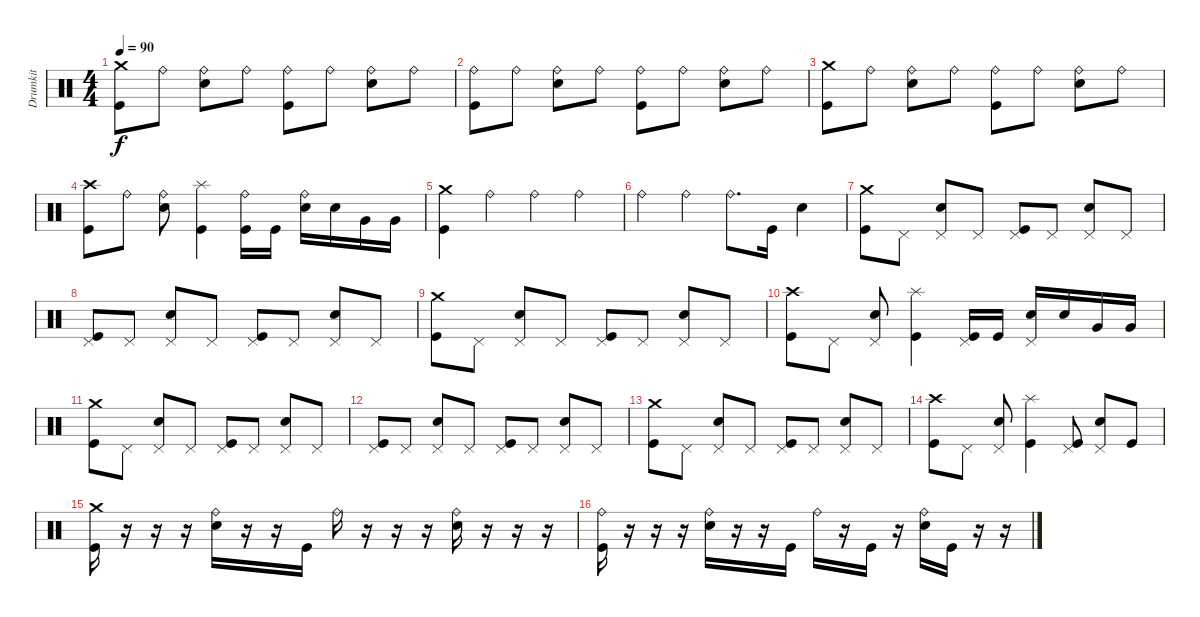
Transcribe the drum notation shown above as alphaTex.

\track ("Drumkit" "Drumkit") {instrument percussion}
\staff {score}
\articulation defaults
\ts (4 4)
\tempo 90
\clef neutral
\ks c
("Crash medium (hit)" "Kick (hit)").8{dy f} "Ride (bell)".8 ("Ride (bell)" "Snare (hit) 2").8 "Ride (bell)".8 ("Ride (bell)" "Kick (hit)").8 "Ride (bell)".8 ("Ride (bell)" "Snare (hit) 2").8 "Ride (bell)".8 |
("Ride (bell)" "Kick (hit)").8 "Ride (bell)".8 ("Ride (bell)" "Snare (hit) 2").8 "Ride (bell)".8 ("Ride (bell)" "Kick (hit)").8 "Ride (bell)".8 ("Ride (bell)" "Snare (hit) 2").8 "Ride (bell)".8 |
("Crash medium (hit)" "Kick (hit)").8 "Ride (bell)".8 ("Ride (bell)" "Snare (hit) 2").8 "Ride (bell)".8 ("Ride (bell)" "Kick (hit)").8 "Ride (bell)".8 ("Ride (bell)" "Snare (hit) 2").8 "Ride (bell)".8 |
("Crash high (hit)" "Kick (hit)").8 "Ride (bell)".8 ("Ride (bell)" "Snare (hit) 2").8 ("Splash (hit)" "Kick (hit)").4 ("Ride (bell)" "Kick (hit)").16 "Kick (hit)".16 ("Ride (bell)" "Snare (hit) 2").16 "Snare (hit) 2".16 "Very Low Tom (hit)".16 "Very Low Tom (hit)".16 |
("Crash medium (hit)" "Kick (hit)").4 "Ride (bell)".4 "Ride (bell)".4 "Ride (bell)".4 |
"Ride (bell)".4 "Ride (bell)".4 "Ride (bell)".8{d} "Kick (hit)".16 "Snare (hit) 2".4 |
("Crash medium (hit)" "Kick (hit)").8 "Pedal Hi-Hat (hit)".8 ("Pedal Hi-Hat (hit)" "Snare (hit) 2").8 "Pedal Hi-Hat (hit)".8 ("Pedal Hi-Hat (hit)" "Kick (hit)").8 "Pedal Hi-Hat (hit)".8 ("Pedal Hi-Hat (hit)" "Snare (hit) 2").8 "Pedal Hi-Hat (hit)".8 |
("Pedal Hi-Hat (hit)" "Kick (hit)").8 "Pedal Hi-Hat (hit)".8 ("Pedal Hi-Hat (hit)" "Snare (hit) 2").8 "Pedal Hi-Hat (hit)".8 ("Pedal Hi-Hat (hit)" "Kick (hit)").8 "Pedal Hi-Hat (hit)".8 ("Pedal Hi-Hat (hit)" "Snare (hit) 2").8 "Pedal Hi-Hat (hit)".8 |
("Crash medium (hit)" "Kick (hit)").8 "Pedal Hi-Hat (hit)".8 ("Pedal Hi-Hat (hit)" "Snare (hit) 2").8 "Pedal Hi-Hat (hit)".8 ("Pedal Hi-Hat (hit)" "Kick (hit)").8 "Pedal Hi-Hat (hit)".8 ("Pedal Hi-Hat (hit)" "Snare (hit) 2").8 "Pedal Hi-Hat (hit)".8 |
("Crash high (hit)" "Kick (hit)").8 "Pedal Hi-Hat (hit)".8 ("Pedal Hi-Hat (hit)" "Snare (hit) 2").8 ("Splash (hit)" "Kick (hit)").4 ("Pedal Hi-Hat (hit)" "Kick (hit)").16 "Kick (hit)".16 ("Pedal Hi-Hat (hit)" "Snare (hit) 2").16 "Snare (hit) 2".16 "Very Low Tom (hit)".16 "Very Low Tom (hit)".16 |
("Crash medium (hit)" "Kick (hit)").8 "Pedal Hi-Hat (hit)".8 ("Pedal Hi-Hat (hit)" "Snare (hit) 2").8 "Pedal Hi-Hat (hit)".8 ("Pedal Hi-Hat (hit)" "Kick (hit)").8 "Pedal Hi-Hat (hit)".8 ("Pedal Hi-Hat (hit)" "Snare (hit) 2").8 "Pedal Hi-Hat (hit)".8 |
("Pedal Hi-Hat (hit)" "Kick (hit)").8 "Pedal Hi-Hat (hit)".8 ("Pedal Hi-Hat (hit)" "Snare (hit) 2").8 "Pedal Hi-Hat (hit)".8 ("Pedal Hi-Hat (hit)" "Kick (hit)").8 "Pedal Hi-Hat (hit)".8 ("Pedal Hi-Hat (hit)" "Snare (hit) 2").8 "Pedal Hi-Hat (hit)".8 |
("Crash medium (hit)" "Kick (hit)").8 "Pedal Hi-Hat (hit)".8 ("Pedal Hi-Hat (hit)" "Snare (hit) 2").8 "Pedal Hi-Hat (hit)".8 ("Pedal Hi-Hat (hit)" "Kick (hit)").8 "Pedal Hi-Hat (hit)".8 ("Pedal Hi-Hat (hit)" "Snare (hit) 2").8 "Pedal Hi-Hat (hit)".8 |
("Crash high (hit)" "Kick (hit)").8 "Pedal Hi-Hat (hit)".8 ("Pedal Hi-Hat (hit)" "Snare (hit) 2").8 ("Splash (hit)" "Kick (hit)").4 ("Pedal Hi-Hat (hit)" "Kick (hit)").8 ("Pedal Hi-Hat (hit)" "Snare (hit) 2").8 "Kick (hit)".8 |
("Crash medium (hit)" "Kick (hit)").16 r.16 r.16 r.16 ("Ride (bell)" "Snare (hit) 2").16 r.16 r.16 "Kick (hit)".16 "Ride (bell)".16 r.16 r.16 r.16 ("Ride (bell)" "Snare (hit) 2").16 r.16 r.16 r.16 |
("Ride (bell)" "Kick (hit)").16 r.16 r.16 r.16 ("Ride (bell)" "Snare (hit) 2").16 r.16 r.16 "Kick (hit)".16 "Ride (bell)".16 r.16 "Kick (hit)".16 r.16 ("Ride (bell)" "Snare (hit) 2").16 "Kick (hit)".16 r.16 r.16
